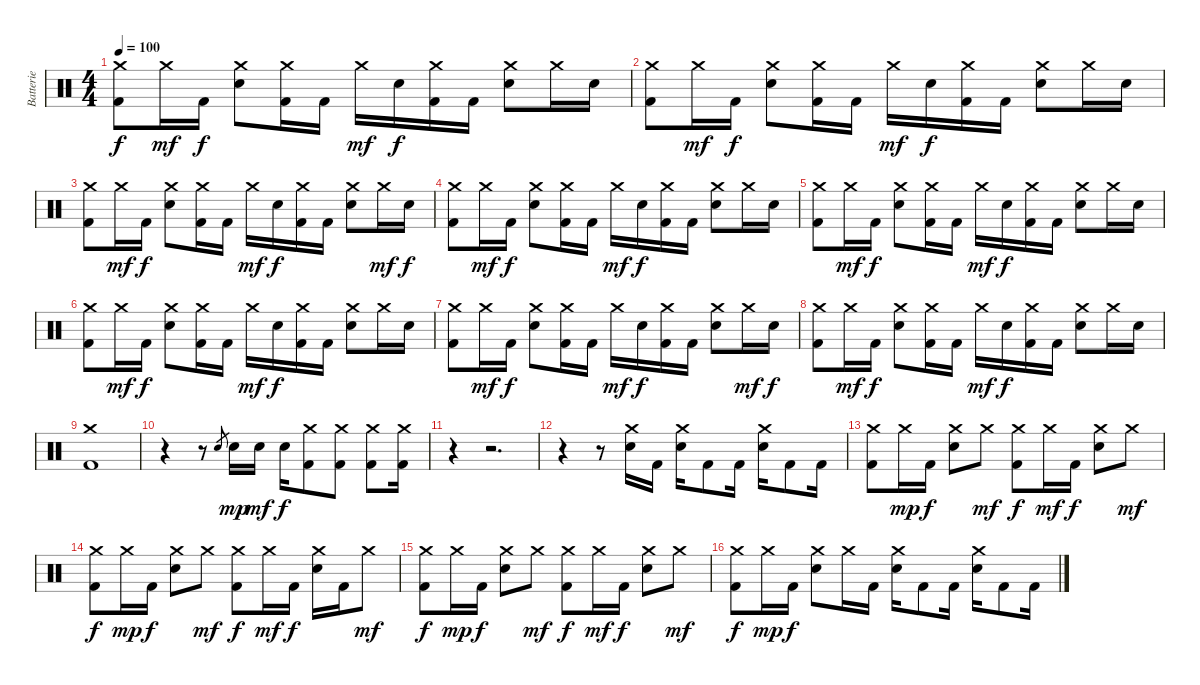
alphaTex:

\track ("Batterie" "Batterie") {instrument percussion}
\staff {score}
\articulation defaults
\ts (4 4)
\tempo 100
\clef neutral
\ks c
("Crash medium (hit)" "Kick (hit) 2").8{dy f} "Crash medium (hit)".16{dy mf} "Kick (hit) 2".16{dy f} ("Crash medium (hit)" "Electric Snare (hit)").8 ("Crash medium (hit)" "Kick (hit) 2").16 "Kick (hit) 2".16 "Crash medium (hit)".16{dy mf} "Electric Snare (hit)".16{dy f} ("Crash medium (hit)" "Kick (hit) 2").16 "Kick (hit) 2".16 ("Crash medium (hit)" "Electric Snare (hit)").8 "Crash medium (hit)".16 "Electric Snare (hit)".16 |
("Crash medium (hit)" "Kick (hit) 2").8 "Crash medium (hit)".16{dy mf} "Kick (hit) 2".16{dy f} ("Crash medium (hit)" "Electric Snare (hit)").8 ("Crash medium (hit)" "Kick (hit) 2").16 "Kick (hit) 2".16 "Crash medium (hit)".16{dy mf} "Electric Snare (hit)".16{dy f} ("Crash medium (hit)" "Kick (hit) 2").16 "Kick (hit) 2".16 ("Crash medium (hit)" "Electric Snare (hit)").8 "Crash medium (hit)".16 "Electric Snare (hit)".16 |
("Crash medium (hit)" "Kick (hit) 2").8 "Crash medium (hit)".16{dy mf} "Kick (hit) 2".16{dy f} ("Crash medium (hit)" "Electric Snare (hit)").8 ("Crash medium (hit)" "Kick (hit) 2").16 "Kick (hit) 2".16 "Crash medium (hit)".16{dy mf} "Electric Snare (hit)".16{dy f} ("Crash medium (hit)" "Kick (hit) 2").16 "Kick (hit) 2".16 ("Crash medium (hit)" "Electric Snare (hit)").8 "Crash medium (hit)".16{dy mf} "Electric Snare (hit)".16{dy f} |
("Crash medium (hit)" "Kick (hit) 2").8 "Crash medium (hit)".16{dy mf} "Kick (hit) 2".16{dy f} ("Crash medium (hit)" "Electric Snare (hit)").8 ("Crash medium (hit)" "Kick (hit) 2").16 "Kick (hit) 2".16 "Crash medium (hit)".16{dy mf} "Electric Snare (hit)".16{dy f} ("Crash medium (hit)" "Kick (hit) 2").16 "Kick (hit) 2".16 ("Crash medium (hit)" "Electric Snare (hit)").8 "Crash medium (hit)".16 "Electric Snare (hit)".16 |
("Crash medium (hit)" "Kick (hit) 2").8 "Crash medium (hit)".16{dy mf} "Kick (hit) 2".16{dy f} ("Crash medium (hit)" "Electric Snare (hit)").8 ("Crash medium (hit)" "Kick (hit) 2").16 "Kick (hit) 2".16 "Crash medium (hit)".16{dy mf} "Electric Snare (hit)".16{dy f} ("Crash medium (hit)" "Kick (hit) 2").16 "Kick (hit) 2".16 ("Crash medium (hit)" "Electric Snare (hit)").8 "Crash medium (hit)".16 "Electric Snare (hit)".16 |
("Crash medium (hit)" "Kick (hit) 2").8 "Crash medium (hit)".16{dy mf} "Kick (hit) 2".16{dy f} ("Crash medium (hit)" "Electric Snare (hit)").8 ("Crash medium (hit)" "Kick (hit) 2").16 "Kick (hit) 2".16 "Crash medium (hit)".16{dy mf} "Electric Snare (hit)".16{dy f} ("Crash medium (hit)" "Kick (hit) 2").16 "Kick (hit) 2".16 ("Crash medium (hit)" "Electric Snare (hit)").8 "Crash medium (hit)".16 "Electric Snare (hit)".16 |
("Crash medium (hit)" "Kick (hit) 2").8 "Crash medium (hit)".16{dy mf} "Kick (hit) 2".16{dy f} ("Crash medium (hit)" "Electric Snare (hit)").8 ("Crash medium (hit)" "Kick (hit) 2").16 "Kick (hit) 2".16 "Crash medium (hit)".16{dy mf} "Electric Snare (hit)".16{dy f} ("Crash medium (hit)" "Kick (hit) 2").16 "Kick (hit) 2".16 ("Crash medium (hit)" "Electric Snare (hit)").8 "Crash medium (hit)".16{dy mf} "Electric Snare (hit)".16{dy f} |
("Crash medium (hit)" "Kick (hit) 2").8 "Crash medium (hit)".16{dy mf} "Kick (hit) 2".16{dy f} ("Crash medium (hit)" "Electric Snare (hit)").8 ("Crash medium (hit)" "Kick (hit) 2").16 "Kick (hit) 2".16 "Crash medium (hit)".16{dy mf} "Electric Snare (hit)".16{dy f} ("Crash medium (hit)" "Kick (hit) 2").16 "Kick (hit) 2".16 ("Crash medium (hit)" "Electric Snare (hit)").8 "Crash medium (hit)".16 "Electric Snare (hit)".16 |
("Crash medium (hit)" "Kick (hit) 2").1 |
r.4 r.8 "Electric Snare (hit)".8{gr} "Electric Snare (hit)".16{dy mp} "Electric Snare (hit)".16{dy mf} "Electric Snare (hit)".16{dy f} ("Crash medium (hit)" "Kick (hit) 2").8 ("Crash medium (hit)" "Kick (hit) 2").8 ("Crash medium (hit)" "Kick (hit) 2").8 ("Crash medium (hit)" "Kick (hit) 2").16 |
r.4 r.2{d} |
r.4 r.8 ("Crash medium (hit)" "Electric Snare (hit)").16 "Kick (hit) 2".16 ("Crash medium (hit)" "Electric Snare (hit)").16 "Kick (hit) 2".8 "Kick (hit) 2".16 ("Crash medium (hit)" "Electric Snare (hit)").16 "Kick (hit) 2".8 "Kick (hit) 2".16 |
("Crash medium (hit)" "Kick (hit) 2").8 "Crash medium (hit)".16{dy mp} "Kick (hit) 2".16{dy f} ("Crash medium (hit)" "Electric Snare (hit)").8 "Crash medium (hit)".8{dy mf} ("Crash medium (hit)" "Kick (hit) 2").8{dy f} "Crash medium (hit)".16{dy mf} "Kick (hit) 2".16{dy f} ("Crash medium (hit)" "Electric Snare (hit)").8 "Crash medium (hit)".8{dy mf} |
("Crash medium (hit)" "Kick (hit) 2").8{dy f} "Crash medium (hit)".16{dy mp} "Kick (hit) 2".16{dy f} ("Crash medium (hit)" "Electric Snare (hit)").8 "Crash medium (hit)".8{dy mf} ("Crash medium (hit)" "Kick (hit) 2").8{dy f} "Crash medium (hit)".16{dy mf} "Kick (hit) 2".16{dy f} ("Crash medium (hit)" "Electric Snare (hit)").16 "Kick (hit) 2".16 "Crash medium (hit)".8{dy mf} |
("Crash medium (hit)" "Kick (hit) 2").8{dy f} "Crash medium (hit)".16{dy mp} "Kick (hit) 2".16{dy f} ("Crash medium (hit)" "Electric Snare (hit)").8 "Crash medium (hit)".8{dy mf} ("Crash medium (hit)" "Kick (hit) 2").8{dy f} "Crash medium (hit)".16{dy mf} "Kick (hit) 2".16{dy f} ("Crash medium (hit)" "Electric Snare (hit)").8 "Crash medium (hit)".8{dy mf} |
("Crash medium (hit)" "Kick (hit) 2").8{dy f} "Crash medium (hit)".16{dy mp} "Kick (hit) 2".16{dy f} ("Crash medium (hit)" "Electric Snare (hit)").8 "Crash medium (hit)".16 "Kick (hit) 2".16 ("Crash medium (hit)" "Electric Snare (hit)").16 "Kick (hit) 2".8 "Kick (hit) 2".16 ("Crash medium (hit)" "Electric Snare (hit)").16 "Kick (hit) 2".8 "Kick (hit) 2".16
